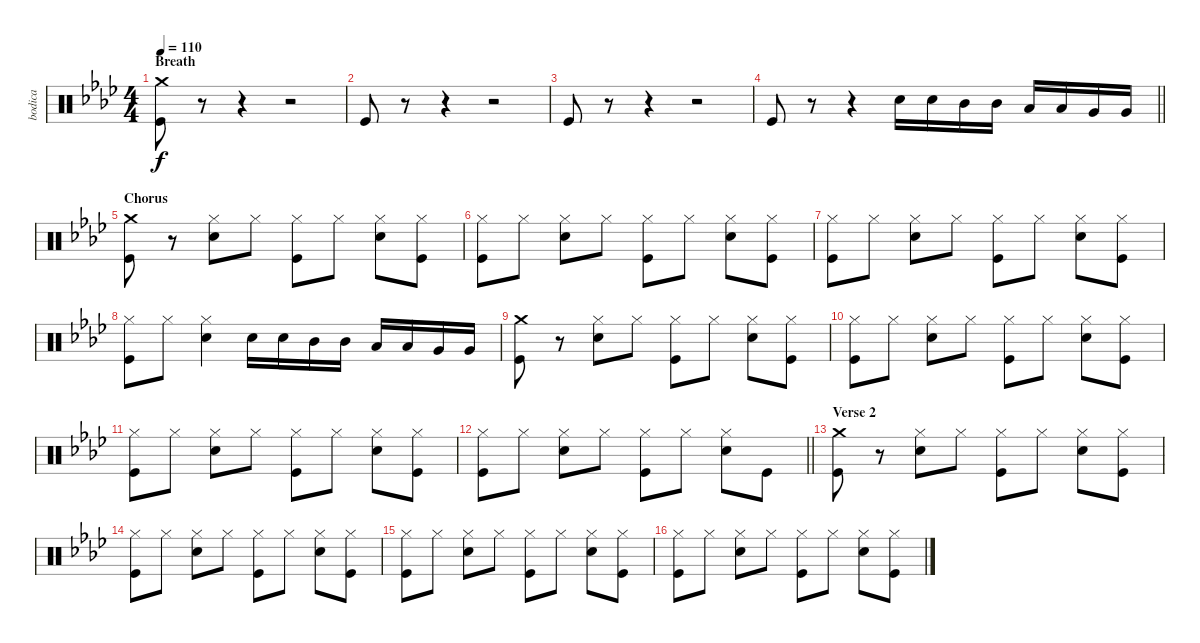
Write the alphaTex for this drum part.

\track ("bodica" "bodica") {instrument percussion}
\staff {score}
\articulation defaults
\ts (4 4)
\section ("" "Breath")
\tempo 110
\clef neutral
\ks fminor
("Crash medium (hit)" "Kick (hit)").8{dy f} r.8 r.4 r.2 |
"Kick (hit)".8 r.8 r.4 r.2 |
"Kick (hit)".8 r.8 r.4 r.2 |
\barLineRight lightlight "Kick (hit)".8
r.8 r.4 "Snare (hit) 2".16 "Snare (hit) 2".16 "Mid Tom (hit)".16 "Mid Tom (hit)".16 "Low Tom (hit)".16 "Low Tom (hit)".16 "Very Low Tom (hit)".16 "Very Low Tom (hit)".16 |
\section ("" "Chorus")
("Crash medium (hit)" "Kick (hit)").8 r.8 ("Hi-Hat (closed)" "Snare (hit) 2").8 "Hi-Hat (closed)".8 ("Hi-Hat (closed)" "Kick (hit)").8 "Hi-Hat (closed)".8 ("Hi-Hat (closed)" "Snare (hit) 2").8 ("Hi-Hat (closed)" "Kick (hit)").8 |
("Hi-Hat (closed)" "Kick (hit)").8 "Hi-Hat (closed)".8 ("Hi-Hat (closed)" "Snare (hit) 2").8 "Hi-Hat (closed)".8 ("Hi-Hat (closed)" "Kick (hit)").8 "Hi-Hat (closed)".8 ("Hi-Hat (closed)" "Snare (hit) 2").8 ("Hi-Hat (closed)" "Kick (hit)").8 |
("Hi-Hat (closed)" "Kick (hit)").8 "Hi-Hat (closed)".8 ("Hi-Hat (closed)" "Snare (hit) 2").8 "Hi-Hat (closed)".8 ("Hi-Hat (closed)" "Kick (hit)").8 "Hi-Hat (closed)".8 ("Hi-Hat (closed)" "Snare (hit) 2").8 ("Hi-Hat (closed)" "Kick (hit)").8 |
("Hi-Hat (closed)" "Kick (hit)").8 "Hi-Hat (closed)".8 ("Hi-Hat (closed)" "Snare (hit) 2").4 "Snare (hit) 2".16 "Snare (hit) 2".16 "Mid Tom (hit)".16 "Mid Tom (hit)".16 "Low Tom (hit)".16 "Low Tom (hit)".16 "Very Low Tom (hit)".16 "Very Low Tom (hit)".16 |
("Crash medium (hit)" "Kick (hit)").8 r.8 ("Hi-Hat (closed)" "Snare (hit) 2").8 "Hi-Hat (closed)".8 ("Hi-Hat (closed)" "Kick (hit)").8 "Hi-Hat (closed)".8 ("Hi-Hat (closed)" "Snare (hit) 2").8 ("Hi-Hat (closed)" "Kick (hit)").8 |
("Hi-Hat (closed)" "Kick (hit)").8 "Hi-Hat (closed)".8 ("Hi-Hat (closed)" "Snare (hit) 2").8 "Hi-Hat (closed)".8 ("Hi-Hat (closed)" "Kick (hit)").8 "Hi-Hat (closed)".8 ("Hi-Hat (closed)" "Snare (hit) 2").8 ("Hi-Hat (closed)" "Kick (hit)").8 |
("Hi-Hat (closed)" "Kick (hit)").8 "Hi-Hat (closed)".8 ("Hi-Hat (closed)" "Snare (hit) 2").8 "Hi-Hat (closed)".8 ("Hi-Hat (closed)" "Kick (hit)").8 "Hi-Hat (closed)".8 ("Hi-Hat (closed)" "Snare (hit) 2").8 ("Hi-Hat (closed)" "Kick (hit)").8 |
\barLineRight lightlight
("Hi-Hat (closed)" "Kick (hit)").8 "Hi-Hat (closed)".8 ("Hi-Hat (closed)" "Snare (hit) 2").8 "Hi-Hat (closed)".8 ("Hi-Hat (closed)" "Kick (hit)").8 "Hi-Hat (closed)".8 ("Hi-Hat (closed)" "Snare (hit) 2").8 "Kick (hit)".8 |
\section ("" "Verse 2")
("Crash medium (hit)" "Kick (hit)").8 r.8 ("Hi-Hat (closed)" "Snare (hit) 2").8 "Hi-Hat (closed)".8 ("Hi-Hat (closed)" "Kick (hit)").8 "Hi-Hat (closed)".8 ("Hi-Hat (closed)" "Snare (hit) 2").8 ("Hi-Hat (closed)" "Kick (hit)").8 |
("Hi-Hat (closed)" "Kick (hit)").8 "Hi-Hat (closed)".8 ("Hi-Hat (closed)" "Snare (hit) 2").8 "Hi-Hat (closed)".8 ("Hi-Hat (closed)" "Kick (hit)").8 "Hi-Hat (closed)".8 ("Hi-Hat (closed)" "Snare (hit) 2").8 ("Hi-Hat (closed)" "Kick (hit)").8 |
("Hi-Hat (closed)" "Kick (hit)").8 "Hi-Hat (closed)".8 ("Hi-Hat (closed)" "Snare (hit) 2").8 "Hi-Hat (closed)".8 ("Hi-Hat (closed)" "Kick (hit)").8 "Hi-Hat (closed)".8 ("Hi-Hat (closed)" "Snare (hit) 2").8 ("Hi-Hat (closed)" "Kick (hit)").8 |
("Hi-Hat (closed)" "Kick (hit)").8 "Hi-Hat (closed)".8 ("Hi-Hat (closed)" "Snare (hit) 2").8 "Hi-Hat (closed)".8 ("Hi-Hat (closed)" "Kick (hit)").8 "Hi-Hat (closed)".8 ("Hi-Hat (closed)" "Snare (hit) 2").8 ("Hi-Hat (closed)" "Kick (hit)").8
